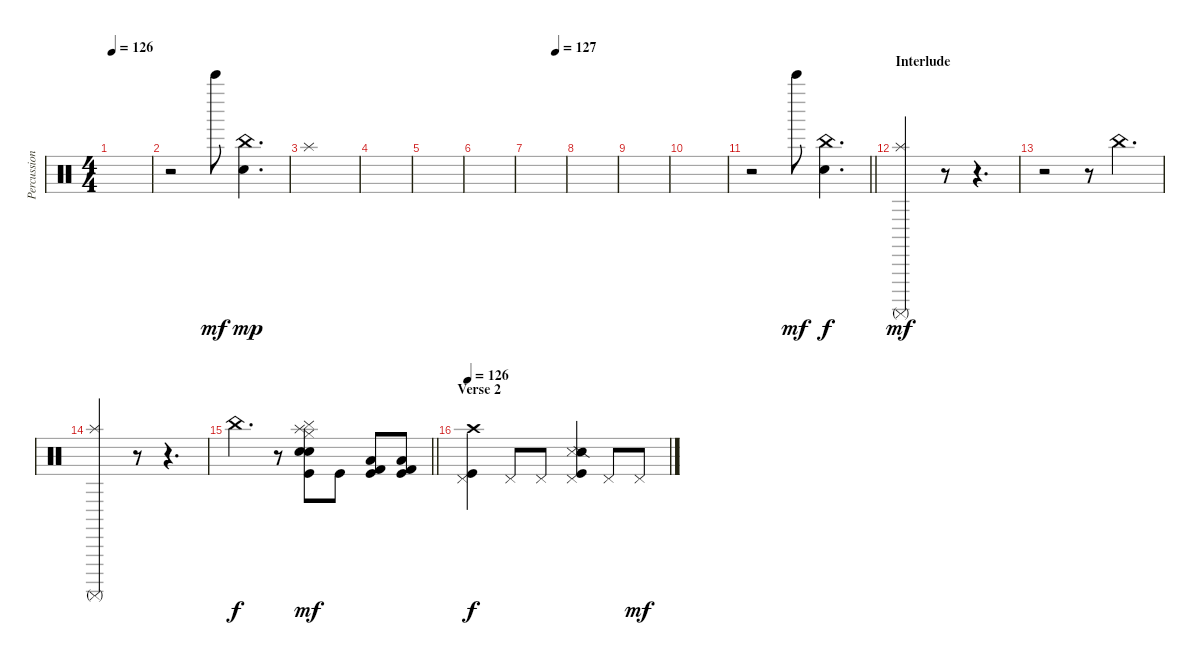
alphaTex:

\track ("Percussion" "Percussion") {instrument percussion}
\staff {score}
\articulation defaults
\ts (4 4)
\tempo 126
\clef neutral
\ks c
|
r.2 "Bell Tree (hit)".8{dy mf} ("China (hit)" "Snare (hit)").4{d dy mp} |
"Splash (hit)".1 |
|
|
|
\tempo (127 0.75)
|
|
|
|
\barLineRight lightlight
r.2 "Bell Tree (hit)".8{dy mf} ("China (hit)" "Snare (hit)").4{d dy f} |
\section ("" "Interlude")
("Splash (hit)" "Surdo (mute)").2{dy mf} r.8 r.4{d} |
r.2 r.8 "China (hit)".4{d} |
("Splash (hit)" "Surdo (mute)").2 r.8 r.4{d} |
\barLineRight lightlight "China (hit)".4{d dy f}
r.8 ("Cymbal (hit)" "Electric Snare (hit)" "Kick (hit)" "Snare (hit)" "Splash (hit)" "Hi-Hat (closed)").8{dy mf} "Kick (hit)".8 ("Low Floor Tom (hit)" "Kick (hit)" "Kick (hit) 2").8 ("Low Floor Tom (hit)" "Kick (hit)" "Kick (hit) 2").8 |
\section ("" "Verse 2")
\tempo 126
("Pedal Hi-Hat (hit)" "Kick (hit)" "Crash high (hit)").4{dy f} "Pedal Hi-Hat (hit)".8 "Pedal Hi-Hat (hit)".8 ("Pedal Hi-Hat (hit)" "Snare (side stick) 3" "Snare (side stick) 2" "Kick (hit)").4 "Pedal Hi-Hat (hit)".8 "Pedal Hi-Hat (hit)".8{dy mf}
